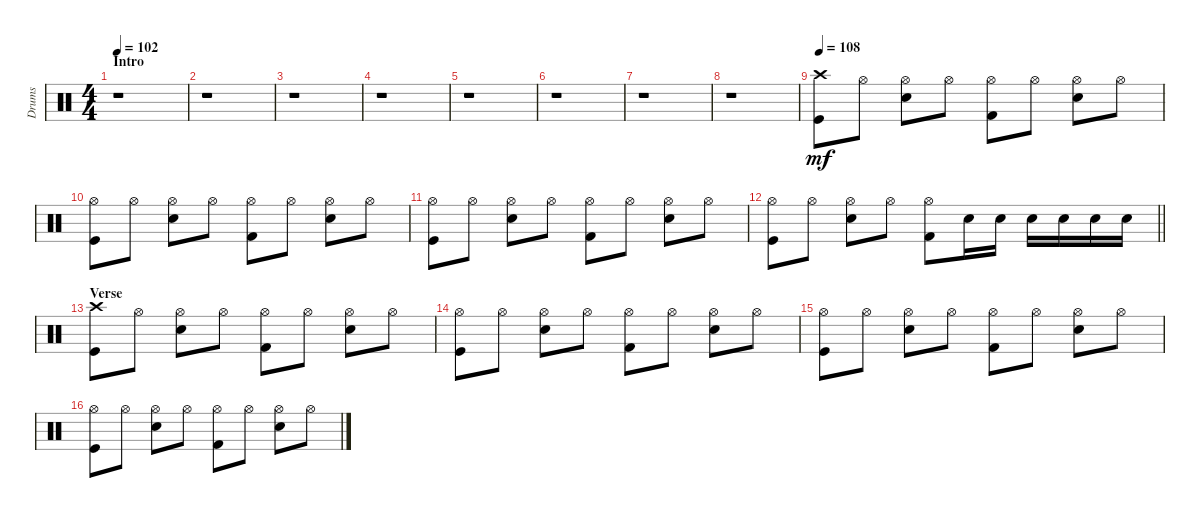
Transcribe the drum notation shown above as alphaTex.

\track ("Drums" "Drums") {instrument percussion}
\staff {score}
\articulation defaults
\ts (4 4)
\section ("" "Intro")
\tempo 102
\clef neutral
\ks c
r.1{dy mf} |
r.1 |
r.1 |
r.1 |
r.1 |
r.1 |
r.1 |
r.1 |
\tempo 108
("Crash high (hit)" "Kick (hit)").8 "Hi-Hat (open)".8 ("Hi-Hat (open)" "Snare (hit) 2").8 "Hi-Hat (open)".8 ("Hi-Hat (open)" "Kick (hit) 2").8 "Hi-Hat (open)".8 ("Hi-Hat (open)" "Snare (hit) 2").8 "Hi-Hat (open)".8 |
("Hi-Hat (open)" "Kick (hit)").8 "Hi-Hat (open)".8 ("Hi-Hat (open)" "Snare (hit) 2").8 "Hi-Hat (open)".8 ("Hi-Hat (open)" "Kick (hit) 2").8 "Hi-Hat (open)".8 ("Hi-Hat (open)" "Snare (hit) 2").8 "Hi-Hat (open)".8 |
("Hi-Hat (open)" "Kick (hit)").8 "Hi-Hat (open)".8 ("Hi-Hat (open)" "Snare (hit) 2").8 "Hi-Hat (open)".8 ("Hi-Hat (open)" "Kick (hit) 2").8 "Hi-Hat (open)".8 ("Hi-Hat (open)" "Snare (hit) 2").8 "Hi-Hat (open)".8 |
\barLineRight lightlight
("Hi-Hat (open)" "Kick (hit)").8 "Hi-Hat (open)".8 ("Hi-Hat (open)" "Snare (hit) 2").8 "Hi-Hat (open)".8 ("Hi-Hat (open)" "Kick (hit) 2").8 "Snare (hit) 2".16 "Snare (hit) 2".16 "Snare (hit) 2".16 "Snare (hit) 2".16 "Snare (hit) 2".16 "Snare (hit) 2".16 |
\section ("" "Verse")
("Crash high (hit)" "Kick (hit)").8 "Hi-Hat (open)".8 ("Hi-Hat (open)" "Snare (hit) 2").8 "Hi-Hat (open)".8 ("Hi-Hat (open)" "Kick (hit) 2").8 "Hi-Hat (open)".8 ("Hi-Hat (open)" "Snare (hit) 2").8 "Hi-Hat (open)".8 |
("Hi-Hat (open)" "Kick (hit)").8 "Hi-Hat (open)".8 ("Hi-Hat (open)" "Snare (hit) 2").8 "Hi-Hat (open)".8 ("Hi-Hat (open)" "Kick (hit) 2").8 "Hi-Hat (open)".8 ("Hi-Hat (open)" "Snare (hit) 2").8 "Hi-Hat (open)".8 |
("Hi-Hat (open)" "Kick (hit)").8 "Hi-Hat (open)".8 ("Hi-Hat (open)" "Snare (hit) 2").8 "Hi-Hat (open)".8 ("Hi-Hat (open)" "Kick (hit) 2").8 "Hi-Hat (open)".8 ("Hi-Hat (open)" "Snare (hit) 2").8 "Hi-Hat (open)".8 |
("Hi-Hat (open)" "Kick (hit)").8 "Hi-Hat (open)".8 ("Hi-Hat (open)" "Snare (hit) 2").8 "Hi-Hat (open)".8 ("Hi-Hat (open)" "Kick (hit) 2").8 "Hi-Hat (open)".8 ("Hi-Hat (open)" "Snare (hit) 2").8 "Hi-Hat (open)".8
